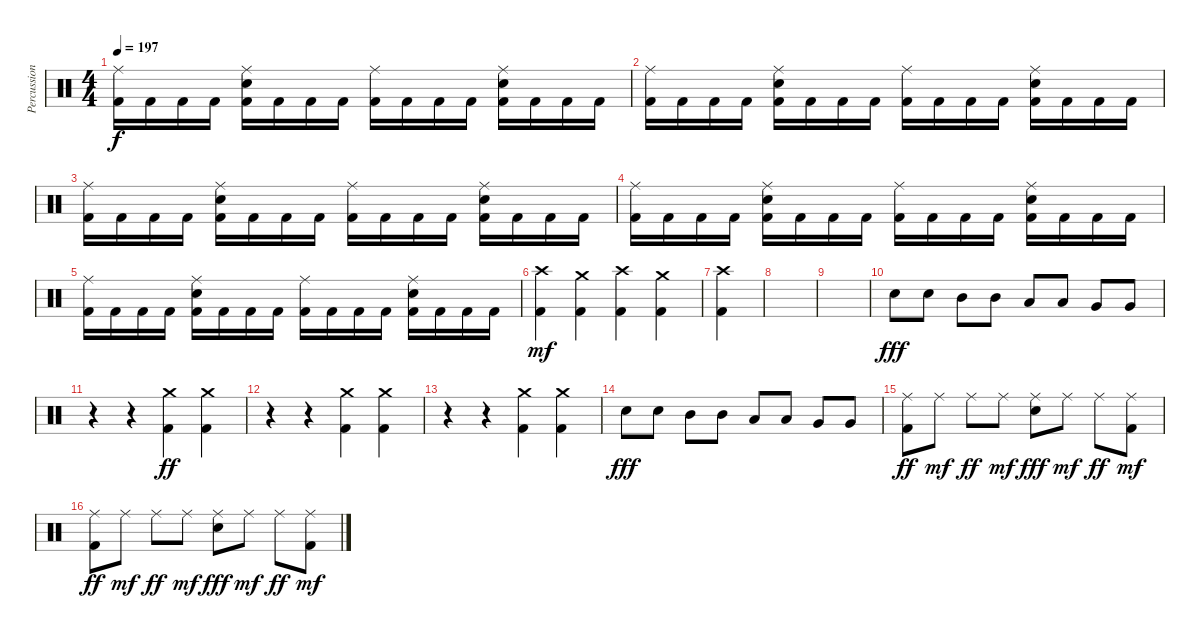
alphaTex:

\track ("Percussions" "Percussion") {instrument percussion}
\staff {score}
\articulation defaults
\ts (4 4)
\tempo 197
\clef neutral
\ks c
("Ride (middle)" "Kick (hit) 2").16{dy f} "Kick (hit) 2".16 "Kick (hit) 2".16 "Kick (hit) 2".16 ("Ride (middle)" "Snare (hit) 2" "Kick (hit) 2").16 "Kick (hit) 2".16 "Kick (hit) 2".16 "Kick (hit) 2".16 ("Ride (middle)" "Kick (hit) 2").16 "Kick (hit) 2".16 "Kick (hit) 2".16 "Kick (hit) 2".16 ("Ride (middle)" "Snare (hit) 2" "Kick (hit) 2").16 "Kick (hit) 2".16 "Kick (hit) 2".16 "Kick (hit) 2".16 |
("Ride (middle)" "Kick (hit) 2").16 "Kick (hit) 2".16 "Kick (hit) 2".16 "Kick (hit) 2".16 ("Ride (middle)" "Snare (hit) 2" "Kick (hit) 2").16 "Kick (hit) 2".16 "Kick (hit) 2".16 "Kick (hit) 2".16 ("Ride (middle)" "Kick (hit) 2").16 "Kick (hit) 2".16 "Kick (hit) 2".16 "Kick (hit) 2".16 ("Ride (middle)" "Snare (hit) 2" "Kick (hit) 2").16 "Kick (hit) 2".16 "Kick (hit) 2".16 "Kick (hit) 2".16 |
("Ride (middle)" "Kick (hit) 2").16 "Kick (hit) 2".16 "Kick (hit) 2".16 "Kick (hit) 2".16 ("Ride (middle)" "Snare (hit) 2" "Kick (hit) 2").16 "Kick (hit) 2".16 "Kick (hit) 2".16 "Kick (hit) 2".16 ("Ride (middle)" "Kick (hit) 2").16 "Kick (hit) 2".16 "Kick (hit) 2".16 "Kick (hit) 2".16 ("Ride (middle)" "Snare (hit) 2" "Kick (hit) 2").16 "Kick (hit) 2".16 "Kick (hit) 2".16 "Kick (hit) 2".16 |
("Ride (middle)" "Kick (hit) 2").16 "Kick (hit) 2".16 "Kick (hit) 2".16 "Kick (hit) 2".16 ("Ride (middle)" "Snare (hit) 2" "Kick (hit) 2").16 "Kick (hit) 2".16 "Kick (hit) 2".16 "Kick (hit) 2".16 ("Ride (middle)" "Kick (hit) 2").16 "Kick (hit) 2".16 "Kick (hit) 2".16 "Kick (hit) 2".16 ("Ride (middle)" "Snare (hit) 2" "Kick (hit) 2").16 "Kick (hit) 2".16 "Kick (hit) 2".16 "Kick (hit) 2".16 |
("Ride (middle)" "Kick (hit) 2").16 "Kick (hit) 2".16 "Kick (hit) 2".16 "Kick (hit) 2".16 ("Ride (middle)" "Snare (hit) 2" "Kick (hit) 2").16 "Kick (hit) 2".16 "Kick (hit) 2".16 "Kick (hit) 2".16 ("Ride (middle)" "Kick (hit) 2").16 "Kick (hit) 2".16 "Kick (hit) 2".16 "Kick (hit) 2".16 ("Ride (middle)" "Snare (hit) 2" "Kick (hit) 2").16 "Kick (hit) 2".16 "Kick (hit) 2".16 "Kick (hit) 2".16 |
("Crash high (hit)" "Kick (hit) 2").4{dy mf} ("Crash medium (hit)" "Kick (hit) 2").4 ("Crash high (hit)" "Kick (hit) 2").4 ("Crash medium (hit)" "Kick (hit) 2").4 |
("Crash high (hit)" "Kick (hit) 2").4 |
|
|
"Snare (hit) 2".8{dy fff} "Snare (hit) 2".8 "Mid Tom (hit)".8 "Mid Tom (hit)".8 "Low Tom (hit)".8 "Low Tom (hit)".8 "Very Low Tom (hit)".8 "Very Low Tom (hit)".8 |
r.4 r.4 ("Crash medium (hit)" "Kick (hit) 2").4{dy ff} ("Crash medium (hit)" "Kick (hit) 2").4 |
r.4 r.4 ("Crash medium (hit)" "Kick (hit) 2").4 ("Crash medium (hit)" "Kick (hit) 2").4 |
r.4 r.4 ("Crash medium (hit)" "Kick (hit) 2").4 ("Crash medium (hit)" "Kick (hit) 2").4 |
"Snare (hit) 2".8{dy fff} "Snare (hit) 2".8 "Mid Tom (hit)".8 "Mid Tom (hit)".8 "Low Tom (hit)".8 "Low Tom (hit)".8 "Very Low Tom (hit)".8 "Very Low Tom (hit)".8 |
("Ride (middle)" "Kick (hit) 2").8{dy ff} "Ride (middle)".8{dy mf} "Ride (middle)".8{dy ff} "Ride (middle)".8{dy mf} ("Ride (middle)" "Snare (hit) 2").8{dy fff} "Ride (middle)".8{dy mf} "Ride (middle)".8{dy ff} ("Ride (middle)" "Kick (hit) 2").8{dy mf} |
("Ride (middle)" "Kick (hit) 2").8{dy ff} "Ride (middle)".8{dy mf} "Ride (middle)".8{dy ff} "Ride (middle)".8{dy mf} ("Ride (middle)" "Snare (hit) 2").8{dy fff} "Ride (middle)".8{dy mf} "Ride (middle)".8{dy ff} ("Ride (middle)" "Kick (hit) 2").8{dy mf}
